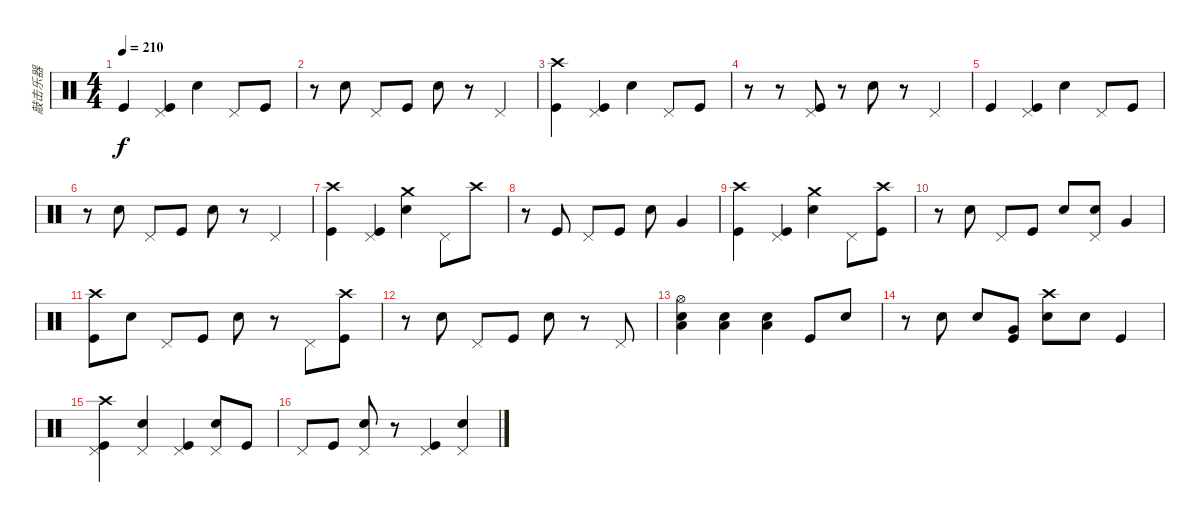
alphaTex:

\track ("敲击乐器" "敲击乐器") {instrument percussion}
\staff {score}
\articulation defaults
\ts (4 4)
\tempo 210
\clef neutral
\ks c "Kick (hit)".4{dy f}
("Kick (hit)" "Pedal Hi-Hat (hit)").4 "Snare (hit) 2".4 "Pedal Hi-Hat (hit)".8 "Kick (hit)".8 |
r.8 "Snare (hit) 2".8 "Pedal Hi-Hat (hit)".8 "Kick (hit)".8 "Snare (hit) 2".8 r.8 "Pedal Hi-Hat (hit)".4 |
("Crash high (hit)" "Kick (hit)").4 ("Kick (hit)" "Pedal Hi-Hat (hit)").4 "Snare (hit) 2".4 "Pedal Hi-Hat (hit)".8 "Kick (hit)".8 |
r.8 r.8 ("Kick (hit)" "Pedal Hi-Hat (hit)").8 r.8 "Snare (hit) 2".8 r.8 "Pedal Hi-Hat (hit)".4 |
"Kick (hit)".4 ("Kick (hit)" "Pedal Hi-Hat (hit)").4 "Snare (hit) 2".4 "Pedal Hi-Hat (hit)".8 "Kick (hit)".8 |
r.8 "Snare (hit) 2".8 "Pedal Hi-Hat (hit)".8 "Kick (hit)".8 "Snare (hit) 2".8 r.8 "Pedal Hi-Hat (hit)".4 |
("Crash high (hit)" "Kick (hit)").4 ("Kick (hit)" "Pedal Hi-Hat (hit)").4 ("Snare (hit) 2" "Crash medium (hit)").4 "Pedal Hi-Hat (hit)".8 "Crash high (hit)".8 |
r.8 "Kick (hit)".8 "Pedal Hi-Hat (hit)".8 "Kick (hit)".8 "Snare (hit) 2".8 "Very Low Tom (hit)".4 |
("Crash high (hit)" "Kick (hit)").4 ("Kick (hit)" "Pedal Hi-Hat (hit)").4 ("Snare (hit) 2" "Crash medium (hit)").4 "Pedal Hi-Hat (hit)".8 ("Kick (hit)" "Crash high (hit)").8 |
r.8 "Snare (hit) 2".8 "Pedal Hi-Hat (hit)".8 "Kick (hit)".8 "Snare (hit) 2".8 ("Snare (hit) 2" "Pedal Hi-Hat (hit)").8 "Very Low Tom (hit)".4 |
("Kick (hit)" "Crash high (hit)").8 "Snare (hit) 2".8 "Pedal Hi-Hat (hit)".8 "Kick (hit)".8 "Snare (hit) 2".8 r.8 "Pedal Hi-Hat (hit)".8 ("Kick (hit)" "Crash high (hit)").8 |
r.8 "Snare (hit) 2".8 "Pedal Hi-Hat (hit)".8 "Kick (hit)".8 "Snare (hit) 2".8 r.8 "Pedal Hi-Hat (hit)".8 |
("Hi-Hat (open)" "Snare (hit) 2" "Low Floor Tom (hit)").4 ("Snare (hit) 2" "Low Floor Tom (hit)").4 ("Snare (hit) 2" "Low Floor Tom (hit)").4 "Kick (hit)".8 "Snare (hit) 2".8 |
r.8 "Snare (hit) 2".8 "Snare (hit) 2".8 ("Kick (hit)" "Very Low Tom (hit)").8 ("Crash high (hit)" "Snare (hit) 2").8 "Snare (hit) 2".8 "Kick (hit)".4 |
("Crash high (hit)" "Pedal Hi-Hat (hit)" "Kick (hit)").4 ("Pedal Hi-Hat (hit)" "Snare (hit) 2").4 ("Pedal Hi-Hat (hit)" "Kick (hit)").4 ("Pedal Hi-Hat (hit)" "Snare (hit) 2").8 "Kick (hit)".8 |
"Pedal Hi-Hat (hit)".8 "Kick (hit)".8 ("Pedal Hi-Hat (hit)" "Snare (hit) 2").8 r.8 ("Kick (hit)" "Pedal Hi-Hat (hit)").4 ("Snare (hit) 2" "Pedal Hi-Hat (hit)").4
